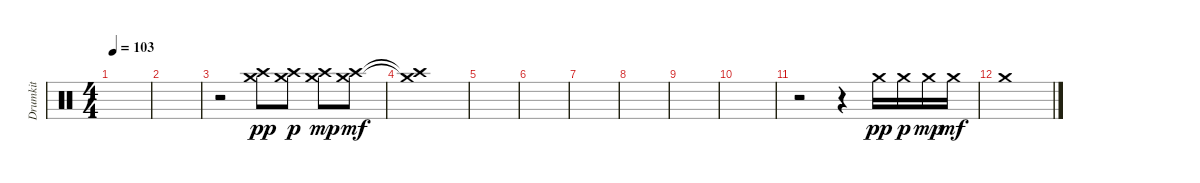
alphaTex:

\track ("Drumkit" "Drumkit") {instrument percussion}
\staff {score}
\articulation defaults
\ts (4 4)
\tempo 103
\clef neutral
\ks c
|
|
r.2 ("Crash high (hit)" "Crash medium (hit)").8{dy pp} ("Crash high (hit)" "Crash medium (hit)").8{dy p} ("Crash high (hit)" "Crash medium (hit)").8{dy mp} ("Crash high (hit)" "Crash medium (hit)").8{dy mf} |
("Crash high (hit)"{t} "Crash medium (hit)"{t}).1 |
|
|
|
|
|
|
r.2 r.4 "Crash medium (hit)".16{dy pp} "Crash medium (hit)".16{dy p} "Crash medium (hit)".16{dy mp} "Crash medium (hit)".16{dy mf} |
"Crash medium (hit)".1
